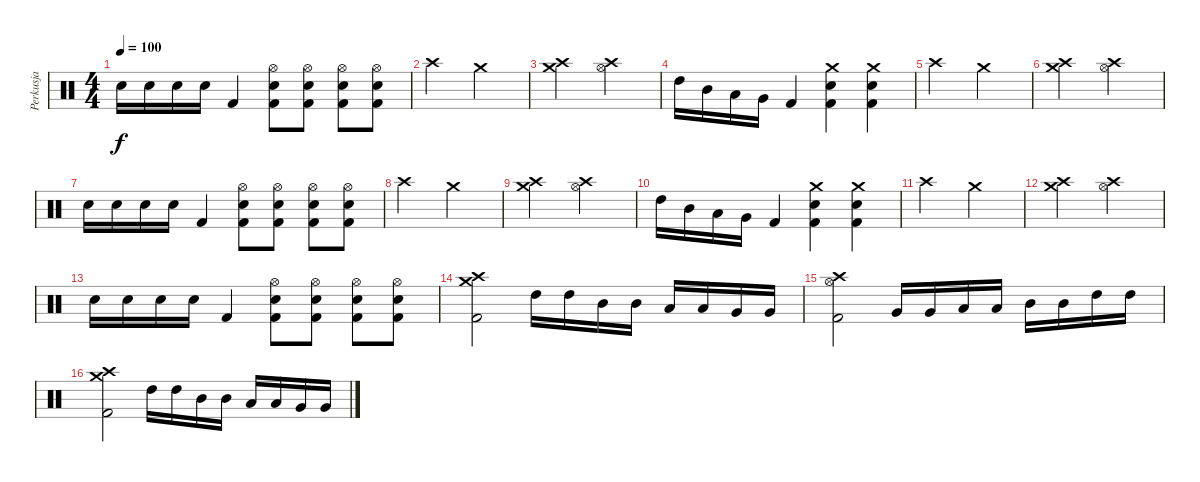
\track ("Perkusja" "Perkusja") {instrument percussion}
\staff {score}
\articulation defaults
\ts (4 4)
\tempo 100
\clef neutral
\ks c "Electric Snare (hit)".16{dy f} "Electric Snare (hit)".16 "Electric Snare (hit)".16 "Electric Snare (hit)".16 "Kick (hit) 2".4
("Hi-Hat (open)" "Electric Snare (hit)" "Kick (hit) 2").8 ("Hi-Hat (open)" "Electric Snare (hit)" "Kick (hit) 2").8 ("Hi-Hat (open)" "Electric Snare (hit)" "Kick (hit) 2").8 ("Hi-Hat (open)" "Electric Snare (hit)" "Kick (hit) 2").8 |
"Crash high (hit)".2 "Crash medium (hit)".2 |
("Crash medium (hit)" "Crash high (hit)").2 ("Crash high (hit)" "Hi-Hat (open)").2 |
"High Tom (hit)".16 "Mid Tom (hit)".16 "Low Tom (hit)".16 "Very Low Tom (hit)".16 "Kick (hit) 2".4 ("Crash medium (hit)" "Electric Snare (hit)" "Kick (hit) 2").4 ("Crash medium (hit)" "Electric Snare (hit)" "Kick (hit) 2").4 |
"Crash high (hit)".2 "Crash medium (hit)".2 |
("Crash medium (hit)" "Crash high (hit)").2 ("Crash high (hit)" "Hi-Hat (open)").2 |
"Electric Snare (hit)".16 "Electric Snare (hit)".16 "Electric Snare (hit)".16 "Electric Snare (hit)".16 "Kick (hit) 2".4 ("Hi-Hat (open)" "Electric Snare (hit)" "Kick (hit) 2").8 ("Hi-Hat (open)" "Electric Snare (hit)" "Kick (hit) 2").8 ("Hi-Hat (open)" "Electric Snare (hit)" "Kick (hit) 2").8 ("Hi-Hat (open)" "Electric Snare (hit)" "Kick (hit) 2").8 |
"Crash high (hit)".2 "Crash medium (hit)".2 |
("Crash medium (hit)" "Crash high (hit)").2 ("Crash high (hit)" "Hi-Hat (open)").2 |
"High Tom (hit)".16 "Mid Tom (hit)".16 "Low Tom (hit)".16 "Very Low Tom (hit)".16 "Kick (hit) 2".4 ("Crash medium (hit)" "Electric Snare (hit)" "Kick (hit) 2").4 ("Crash medium (hit)" "Electric Snare (hit)" "Kick (hit) 2").4 |
"Crash high (hit)".2 "Crash medium (hit)".2 |
("Crash medium (hit)" "Crash high (hit)").2 ("Crash high (hit)" "Hi-Hat (open)").2 |
"Electric Snare (hit)".16 "Electric Snare (hit)".16 "Electric Snare (hit)".16 "Electric Snare (hit)".16 "Kick (hit) 2".4 ("Hi-Hat (open)" "Electric Snare (hit)" "Kick (hit) 2").8 ("Hi-Hat (open)" "Electric Snare (hit)" "Kick (hit) 2").8 ("Hi-Hat (open)" "Electric Snare (hit)" "Kick (hit) 2").8 ("Hi-Hat (open)" "Electric Snare (hit)" "Kick (hit) 2").8 |
("Crash medium (hit)" "Crash high (hit)" "Kick (hit) 2").2 "High Tom (hit)".16 "High Tom (hit)".16 "Mid Tom (hit)".16 "Mid Tom (hit)".16 "Low Tom (hit)".16 "Low Tom (hit)".16 "Very Low Tom (hit)".16 "Very Low Tom (hit)".16 |
("Crash high (hit)" "Hi-Hat (open)" "Kick (hit) 2").2 "Very Low Tom (hit)".16 "Very Low Tom (hit)".16 "Low Tom (hit)".16 "Low Tom (hit)".16 "Mid Tom (hit)".16 "Mid Tom (hit)".16 "High Tom (hit)".16 "High Tom (hit)".16 |
("Crash medium (hit)" "Crash high (hit)" "Kick (hit) 2").2 "High Tom (hit)".16 "High Tom (hit)".16 "Mid Tom (hit)".16 "Mid Tom (hit)".16 "Low Tom (hit)".16 "Low Tom (hit)".16 "Very Low Tom (hit)".16 "Very Low Tom (hit)".16
